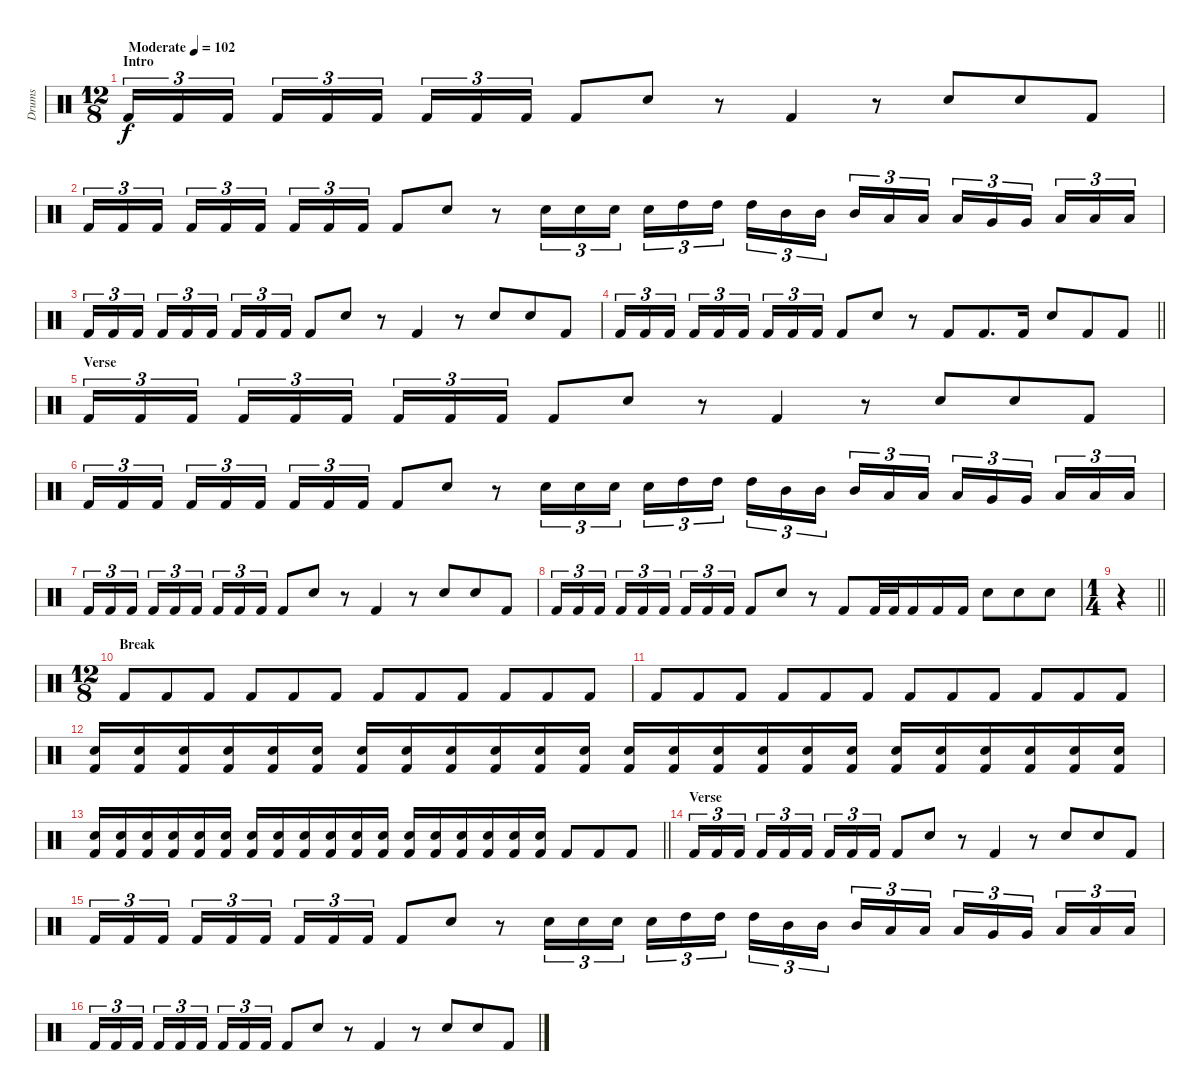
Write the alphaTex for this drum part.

\track ("Drums" "Drums") {instrument percussion}
\staff {score}
\articulation defaults
\ts (12 8)
\section ("" "Intro")
\tempo (102 "Moderate")
\clef neutral
\ks c "Kick (hit) 2".16{tu (3 2) dy f} "Kick (hit) 2".16{tu (3 2)} "Kick (hit) 2".16{tu (3 2) beam splitsecondary} "Kick (hit) 2".16{tu (3 2)} "Kick (hit) 2".16{tu (3 2)} "Kick (hit) 2".16{tu (3 2) beam splitsecondary} "Kick (hit) 2".16{tu (3 2)} "Kick (hit) 2".16{tu (3 2)} "Kick (hit) 2".16{tu (3 2)} "Kick (hit) 2".8 "Electric Snare (hit)".8
r.8 "Kick (hit) 2".4 r.8 "Electric Snare (hit)".8 "Electric Snare (hit)".8 "Kick (hit) 2".8 |
"Kick (hit) 2".16{tu (3 2)} "Kick (hit) 2".16{tu (3 2)} "Kick (hit) 2".16{tu (3 2) beam splitsecondary} "Kick (hit) 2".16{tu (3 2)} "Kick (hit) 2".16{tu (3 2)} "Kick (hit) 2".16{tu (3 2) beam splitsecondary} "Kick (hit) 2".16{tu (3 2)} "Kick (hit) 2".16{tu (3 2)} "Kick (hit) 2".16{tu (3 2)} "Kick (hit) 2".8 "Electric Snare (hit)".8 r.8 "Electric Snare (hit)".16{tu (3 2)} "Electric Snare (hit)".16{tu (3 2)} "Electric Snare (hit)".16{tu (3 2) beam splitsecondary} "Electric Snare (hit)".16{tu (3 2)} "High Tom (hit)".16{tu (3 2)} "High Tom (hit)".16{tu (3 2) beam splitsecondary} "High Tom (hit)".16{tu (3 2)} "Mid Tom (hit)".16{tu (3 2)} "Mid Tom (hit)".16{tu (3 2)} "Mid Tom (hit)".16{tu (3 2)} "Low Tom (hit)".16{tu (3 2)} "Low Tom (hit)".16{tu (3 2) beam splitsecondary} "Low Tom (hit)".16{tu (3 2)} "Very Low Tom (hit)".16{tu (3 2)} "Very Low Tom (hit)".16{tu (3 2) beam splitsecondary} "Low Floor Tom (hit)".16{tu (3 2)} "Low Floor Tom (hit)".16{tu (3 2)} "Low Floor Tom (hit)".16{tu (3 2)} |
"Kick (hit) 2".16{tu (3 2)} "Kick (hit) 2".16{tu (3 2)} "Kick (hit) 2".16{tu (3 2) beam splitsecondary} "Kick (hit) 2".16{tu (3 2)} "Kick (hit) 2".16{tu (3 2)} "Kick (hit) 2".16{tu (3 2) beam splitsecondary} "Kick (hit) 2".16{tu (3 2)} "Kick (hit) 2".16{tu (3 2)} "Kick (hit) 2".16{tu (3 2)} "Kick (hit) 2".8 "Electric Snare (hit)".8 r.8 "Kick (hit) 2".4 r.8 "Electric Snare (hit)".8 "Electric Snare (hit)".8 "Kick (hit) 2".8 |
\barLineRight lightlight "Kick (hit) 2".16{tu (3 2)} "Kick (hit) 2".16{tu (3 2)} "Kick (hit) 2".16{tu (3 2) beam splitsecondary} "Kick (hit) 2".16{tu (3 2)} "Kick (hit) 2".16{tu (3 2)} "Kick (hit) 2".16{tu (3 2) beam splitsecondary} "Kick (hit) 2".16{tu (3 2)} "Kick (hit) 2".16{tu (3 2)} "Kick (hit) 2".16{tu (3 2)} "Kick (hit) 2".8 "Electric Snare (hit)".8
r.8 "Kick (hit) 2".8 "Kick (hit) 2".8{d} "Kick (hit) 2".16 "Electric Snare (hit)".8 "Kick (hit) 2".8 "Kick (hit) 2".8 |
\section ("" "Verse")
"Kick (hit) 2".16{tu (3 2)} "Kick (hit) 2".16{tu (3 2)} "Kick (hit) 2".16{tu (3 2) beam splitsecondary} "Kick (hit) 2".16{tu (3 2)} "Kick (hit) 2".16{tu (3 2)} "Kick (hit) 2".16{tu (3 2) beam splitsecondary} "Kick (hit) 2".16{tu (3 2)} "Kick (hit) 2".16{tu (3 2)} "Kick (hit) 2".16{tu (3 2)} "Kick (hit) 2".8 "Electric Snare (hit)".8 r.8 "Kick (hit) 2".4 r.8 "Electric Snare (hit)".8 "Electric Snare (hit)".8 "Kick (hit) 2".8 |
"Kick (hit) 2".16{tu (3 2)} "Kick (hit) 2".16{tu (3 2)} "Kick (hit) 2".16{tu (3 2) beam splitsecondary} "Kick (hit) 2".16{tu (3 2)} "Kick (hit) 2".16{tu (3 2)} "Kick (hit) 2".16{tu (3 2) beam splitsecondary} "Kick (hit) 2".16{tu (3 2)} "Kick (hit) 2".16{tu (3 2)} "Kick (hit) 2".16{tu (3 2)} "Kick (hit) 2".8 "Electric Snare (hit)".8 r.8 "Electric Snare (hit)".16{tu (3 2)} "Electric Snare (hit)".16{tu (3 2)} "Electric Snare (hit)".16{tu (3 2) beam splitsecondary} "Electric Snare (hit)".16{tu (3 2)} "High Tom (hit)".16{tu (3 2)} "High Tom (hit)".16{tu (3 2) beam splitsecondary} "High Tom (hit)".16{tu (3 2)} "Mid Tom (hit)".16{tu (3 2)} "Mid Tom (hit)".16{tu (3 2)} "Mid Tom (hit)".16{tu (3 2)} "Low Tom (hit)".16{tu (3 2)} "Low Tom (hit)".16{tu (3 2) beam splitsecondary} "Low Tom (hit)".16{tu (3 2)} "Very Low Tom (hit)".16{tu (3 2)} "Very Low Tom (hit)".16{tu (3 2) beam splitsecondary} "Low Floor Tom (hit)".16{tu (3 2)} "Low Floor Tom (hit)".16{tu (3 2)} "Low Floor Tom (hit)".16{tu (3 2)} |
"Kick (hit) 2".16{tu (3 2)} "Kick (hit) 2".16{tu (3 2)} "Kick (hit) 2".16{tu (3 2) beam splitsecondary} "Kick (hit) 2".16{tu (3 2)} "Kick (hit) 2".16{tu (3 2)} "Kick (hit) 2".16{tu (3 2) beam splitsecondary} "Kick (hit) 2".16{tu (3 2)} "Kick (hit) 2".16{tu (3 2)} "Kick (hit) 2".16{tu (3 2)} "Kick (hit) 2".8 "Electric Snare (hit)".8 r.8 "Kick (hit) 2".4 r.8 "Electric Snare (hit)".8 "Electric Snare (hit)".8 "Kick (hit) 2".8 |
"Kick (hit) 2".16{tu (3 2)} "Kick (hit) 2".16{tu (3 2)} "Kick (hit) 2".16{tu (3 2) beam splitsecondary} "Kick (hit) 2".16{tu (3 2)} "Kick (hit) 2".16{tu (3 2)} "Kick (hit) 2".16{tu (3 2) beam splitsecondary} "Kick (hit) 2".16{tu (3 2)} "Kick (hit) 2".16{tu (3 2)} "Kick (hit) 2".16{tu (3 2)} "Kick (hit) 2".8 "Electric Snare (hit)".8 r.8 "Kick (hit) 2".8 "Kick (hit) 2".32 "Kick (hit) 2".32 "Kick (hit) 2".16 "Kick (hit) 2".16 "Kick (hit) 2".16 "Electric Snare (hit)".8 "Electric Snare (hit)".8 "Electric Snare (hit)".8 |
\ts (1 4)
\barLineRight lightlight
r.4 |
\ts (12 8)
\section ("" "Break")
"Kick (hit) 2".8 "Kick (hit) 2".8 "Kick (hit) 2".8 "Kick (hit) 2".8 "Kick (hit) 2".8 "Kick (hit) 2".8 "Kick (hit) 2".8 "Kick (hit) 2".8 "Kick (hit) 2".8 "Kick (hit) 2".8 "Kick (hit) 2".8 "Kick (hit) 2".8 |
"Kick (hit) 2".8 "Kick (hit) 2".8 "Kick (hit) 2".8 "Kick (hit) 2".8 "Kick (hit) 2".8 "Kick (hit) 2".8 "Kick (hit) 2".8 "Kick (hit) 2".8 "Kick (hit) 2".8 "Kick (hit) 2".8 "Kick (hit) 2".8 "Kick (hit) 2".8 |
("Electric Snare (hit)" "Kick (hit) 2").16 ("Electric Snare (hit)" "Kick (hit) 2").16 ("Electric Snare (hit)" "Kick (hit) 2").16 ("Electric Snare (hit)" "Kick (hit) 2").16 ("Electric Snare (hit)" "Kick (hit) 2").16 ("Electric Snare (hit)" "Kick (hit) 2").16 ("Electric Snare (hit)" "Kick (hit) 2").16 ("Electric Snare (hit)" "Kick (hit) 2").16 ("Electric Snare (hit)" "Kick (hit) 2").16 ("Electric Snare (hit)" "Kick (hit) 2").16 ("Electric Snare (hit)" "Kick (hit) 2").16 ("Electric Snare (hit)" "Kick (hit) 2").16 ("Electric Snare (hit)" "Kick (hit) 2").16 ("Electric Snare (hit)" "Kick (hit) 2").16 ("Electric Snare (hit)" "Kick (hit) 2").16 ("Electric Snare (hit)" "Kick (hit) 2").16 ("Electric Snare (hit)" "Kick (hit) 2").16 ("Electric Snare (hit)" "Kick (hit) 2").16 ("Electric Snare (hit)" "Kick (hit) 2").16 ("Electric Snare (hit)" "Kick (hit) 2").16 ("Electric Snare (hit)" "Kick (hit) 2").16 ("Electric Snare (hit)" "Kick (hit) 2").16 ("Electric Snare (hit)" "Kick (hit) 2").16 ("Electric Snare (hit)" "Kick (hit) 2").16 |
\barLineRight lightlight
("Electric Snare (hit)" "Kick (hit) 2").16 ("Electric Snare (hit)" "Kick (hit) 2").16 ("Electric Snare (hit)" "Kick (hit) 2").16 ("Electric Snare (hit)" "Kick (hit) 2").16 ("Electric Snare (hit)" "Kick (hit) 2").16 ("Electric Snare (hit)" "Kick (hit) 2").16 ("Electric Snare (hit)" "Kick (hit) 2").16 ("Electric Snare (hit)" "Kick (hit) 2").16 ("Electric Snare (hit)" "Kick (hit) 2").16 ("Electric Snare (hit)" "Kick (hit) 2").16 ("Electric Snare (hit)" "Kick (hit) 2").16 ("Electric Snare (hit)" "Kick (hit) 2").16 ("Electric Snare (hit)" "Kick (hit) 2").16 ("Electric Snare (hit)" "Kick (hit) 2").16 ("Electric Snare (hit)" "Kick (hit) 2").16 ("Electric Snare (hit)" "Kick (hit) 2").16 ("Electric Snare (hit)" "Kick (hit) 2").16 ("Electric Snare (hit)" "Kick (hit) 2").16 "Kick (hit) 2".8 "Kick (hit) 2".8 "Kick (hit) 2".8 |
\section ("" "Verse")
"Kick (hit) 2".16{tu (3 2)} "Kick (hit) 2".16{tu (3 2)} "Kick (hit) 2".16{tu (3 2) beam splitsecondary} "Kick (hit) 2".16{tu (3 2)} "Kick (hit) 2".16{tu (3 2)} "Kick (hit) 2".16{tu (3 2) beam splitsecondary} "Kick (hit) 2".16{tu (3 2)} "Kick (hit) 2".16{tu (3 2)} "Kick (hit) 2".16{tu (3 2)} "Kick (hit) 2".8 "Electric Snare (hit)".8 r.8 "Kick (hit) 2".4 r.8 "Electric Snare (hit)".8 "Electric Snare (hit)".8 "Kick (hit) 2".8 |
"Kick (hit) 2".16{tu (3 2)} "Kick (hit) 2".16{tu (3 2)} "Kick (hit) 2".16{tu (3 2) beam splitsecondary} "Kick (hit) 2".16{tu (3 2)} "Kick (hit) 2".16{tu (3 2)} "Kick (hit) 2".16{tu (3 2) beam splitsecondary} "Kick (hit) 2".16{tu (3 2)} "Kick (hit) 2".16{tu (3 2)} "Kick (hit) 2".16{tu (3 2)} "Kick (hit) 2".8 "Electric Snare (hit)".8 r.8 "Electric Snare (hit)".16{tu (3 2)} "Electric Snare (hit)".16{tu (3 2)} "Electric Snare (hit)".16{tu (3 2) beam splitsecondary} "Electric Snare (hit)".16{tu (3 2)} "High Tom (hit)".16{tu (3 2)} "High Tom (hit)".16{tu (3 2) beam splitsecondary} "High Tom (hit)".16{tu (3 2)} "Mid Tom (hit)".16{tu (3 2)} "Mid Tom (hit)".16{tu (3 2)} "Mid Tom (hit)".16{tu (3 2)} "Low Tom (hit)".16{tu (3 2)} "Low Tom (hit)".16{tu (3 2) beam splitsecondary} "Low Tom (hit)".16{tu (3 2)} "Very Low Tom (hit)".16{tu (3 2)} "Very Low Tom (hit)".16{tu (3 2) beam splitsecondary} "Low Floor Tom (hit)".16{tu (3 2)} "Low Floor Tom (hit)".16{tu (3 2)} "Low Floor Tom (hit)".16{tu (3 2)} |
"Kick (hit) 2".16{tu (3 2)} "Kick (hit) 2".16{tu (3 2)} "Kick (hit) 2".16{tu (3 2) beam splitsecondary} "Kick (hit) 2".16{tu (3 2)} "Kick (hit) 2".16{tu (3 2)} "Kick (hit) 2".16{tu (3 2) beam splitsecondary} "Kick (hit) 2".16{tu (3 2)} "Kick (hit) 2".16{tu (3 2)} "Kick (hit) 2".16{tu (3 2)} "Kick (hit) 2".8 "Electric Snare (hit)".8 r.8 "Kick (hit) 2".4 r.8 "Electric Snare (hit)".8 "Electric Snare (hit)".8 "Kick (hit) 2".8
